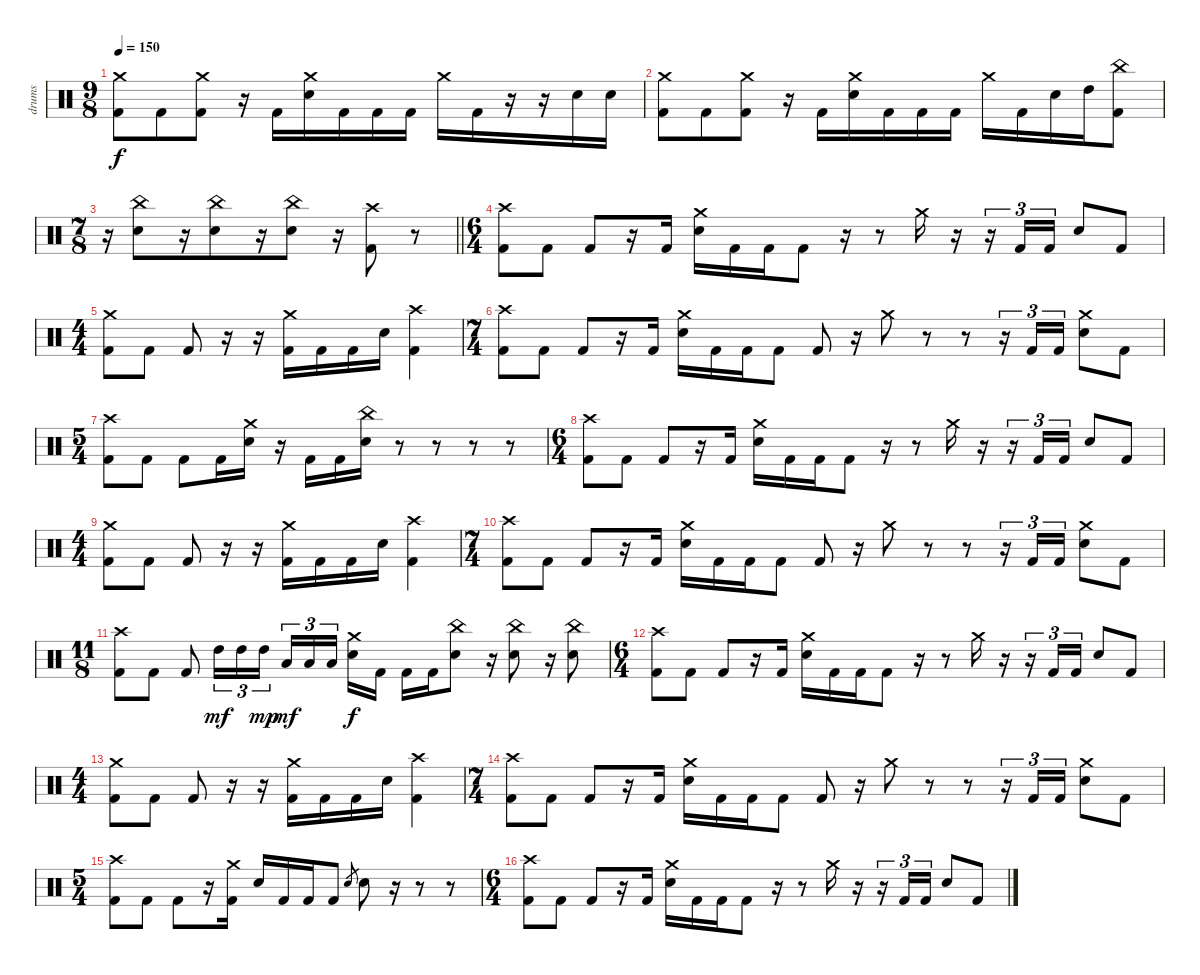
\track ("drums" "drums") {instrument percussion}
\staff {score}
\articulation defaults
\ts (9 8)
\tempo 150
\clef neutral
\ks c
("Crash medium (hit)" "Kick (hit) 2").8{dy f} "Kick (hit) 2".8 ("Crash medium (hit)" "Kick (hit) 2").8 r.16 "Kick (hit) 2".16 ("Crash medium (hit)" "Electric Snare (hit)").16 "Kick (hit) 2".16 "Kick (hit) 2".16 "Kick (hit) 2".16 "Crash medium (hit)".16 "Kick (hit) 2".16 r.16 r.16 "Electric Snare (hit)".16 "Electric Snare (hit)".16 |
("Crash medium (hit)" "Kick (hit) 2").8 "Kick (hit) 2".8 ("Crash medium (hit)" "Kick (hit) 2").8 r.16 "Kick (hit) 2".16 ("Crash medium (hit)" "Electric Snare (hit)").16 "Kick (hit) 2".16 "Kick (hit) 2".16 "Kick (hit) 2".16 "Crash medium (hit)".16 "Kick (hit) 2".16 "Electric Snare (hit)".16 "High Tom (hit)".16 ("China (hit)" "Kick (hit) 2").8 |
\ts (7 8)
\barLineRight lightlight
r.16 ("China (hit)" "Electric Snare (hit)").8 r.16 ("China (hit)" "Electric Snare (hit)").8 r.16 ("China (hit)" "Electric Snare (hit)").8 r.16 ("Crash high (hit)" "Kick (hit) 2").8 r.8 |
\ts (6 4)
\section ("" "")
("Crash high (hit)" "Kick (hit) 2").8 "Kick (hit) 2".8 "Kick (hit) 2".8 r.16 "Kick (hit) 2".16 ("Crash medium (hit)" "Electric Snare (hit)").16 "Kick (hit) 2".16 "Kick (hit) 2".16 "Kick (hit) 2".8 r.16 r.8 "Crash medium (hit)".16 r.16 r.16{tu (3 2)} "Kick (hit) 2".16{tu (3 2)} "Kick (hit) 2".16{tu (3 2)} "Electric Snare (hit)".8 "Kick (hit) 2".8 |
\ts (4 4)
("Crash medium (hit)" "Kick (hit) 2").8 "Kick (hit) 2".8 "Kick (hit) 2".8 r.16 r.16 ("Crash medium (hit)" "Kick (hit) 2").16 "Kick (hit) 2".16 "Kick (hit) 2".16 "Electric Snare (hit)".16 ("Crash high (hit)" "Kick (hit) 2").4 |
\ts (7 4)
("Crash high (hit)" "Kick (hit) 2").8 "Kick (hit) 2".8 "Kick (hit) 2".8 r.16 "Kick (hit) 2".16 ("Crash medium (hit)" "Electric Snare (hit)").16 "Kick (hit) 2".16 "Kick (hit) 2".16 "Kick (hit) 2".8 "Kick (hit) 2".8 r.16 "Crash medium (hit)".8 r.8 r.8 r.16{tu (3 2)} "Kick (hit) 2".16{tu (3 2)} "Kick (hit) 2".16{tu (3 2)} ("Crash medium (hit)" "Electric Snare (hit)").8 "Kick (hit) 2".8 |
\ts (5 4)
("Crash high (hit)" "Kick (hit) 2").8 "Kick (hit) 2".8 "Kick (hit) 2".8 "Kick (hit) 2".16 ("Crash medium (hit)" "Electric Snare (hit)").16 r.16 "Kick (hit) 2".16 "Kick (hit) 2".16 ("China (hit)" "Electric Snare (hit)").16 r.8 r.8 r.8 r.8 |
\ts (6 4)
("Crash high (hit)" "Kick (hit) 2").8 "Kick (hit) 2".8 "Kick (hit) 2".8 r.16 "Kick (hit) 2".16 ("Crash medium (hit)" "Electric Snare (hit)").16 "Kick (hit) 2".16 "Kick (hit) 2".16 "Kick (hit) 2".8 r.16 r.8 "Crash medium (hit)".16 r.16 r.16{tu (3 2)} "Kick (hit) 2".16{tu (3 2)} "Kick (hit) 2".16{tu (3 2)} "Electric Snare (hit)".8 "Kick (hit) 2".8 |
\ts (4 4)
("Crash medium (hit)" "Kick (hit) 2").8 "Kick (hit) 2".8 "Kick (hit) 2".8 r.16 r.16 ("Crash medium (hit)" "Kick (hit) 2").16 "Kick (hit) 2".16 "Kick (hit) 2".16 "Electric Snare (hit)".16 ("Crash high (hit)" "Kick (hit) 2").4 |
\ts (7 4)
("Crash high (hit)" "Kick (hit) 2").8 "Kick (hit) 2".8 "Kick (hit) 2".8 r.16 "Kick (hit) 2".16 ("Crash medium (hit)" "Electric Snare (hit)").16 "Kick (hit) 2".16 "Kick (hit) 2".16 "Kick (hit) 2".8 "Kick (hit) 2".8 r.16 "Crash medium (hit)".8 r.8 r.8 r.16{tu (3 2)} "Kick (hit) 2".16{tu (3 2)} "Kick (hit) 2".16{tu (3 2)} ("Crash medium (hit)" "Electric Snare (hit)").8 "Kick (hit) 2".8 |
\ts (11 8)
("Crash high (hit)" "Kick (hit) 2").8 "Kick (hit) 2".8 "Kick (hit) 2".8 "High Tom (hit)".16{tu (3 2) dy mf} "High Tom (hit)".16{tu (3 2)} "High Tom (hit)".16{tu (3 2) dy mp} "Low Tom (hit)".16{tu (3 2) dy mf} "Low Tom (hit)".16{tu (3 2)} "Low Tom (hit)".16{tu (3 2)} ("Crash medium (hit)" "Electric Snare (hit)").16{dy f} "Kick (hit) 2".16 "Kick (hit) 2".16 "Kick (hit) 2".16 ("China (hit)" "Electric Snare (hit)").8 r.16 ("China (hit)" "Electric Snare (hit)").8 r.16 ("China (hit)" "Electric Snare (hit)").8 |
\ts (6 4)
("Crash high (hit)" "Kick (hit) 2").8 "Kick (hit) 2".8 "Kick (hit) 2".8 r.16 "Kick (hit) 2".16 ("Crash medium (hit)" "Electric Snare (hit)").16 "Kick (hit) 2".16 "Kick (hit) 2".16 "Kick (hit) 2".8 r.16 r.8 "Crash medium (hit)".16 r.16 r.16{tu (3 2)} "Kick (hit) 2".16{tu (3 2)} "Kick (hit) 2".16{tu (3 2)} "Electric Snare (hit)".8 "Kick (hit) 2".8 |
\ts (4 4)
("Crash medium (hit)" "Kick (hit) 2").8 "Kick (hit) 2".8 "Kick (hit) 2".8 r.16 r.16 ("Crash medium (hit)" "Kick (hit) 2").16 "Kick (hit) 2".16 "Kick (hit) 2".16 "Electric Snare (hit)".16 ("Crash high (hit)" "Kick (hit) 2").4 |
\ts (7 4)
("Crash high (hit)" "Kick (hit) 2").8 "Kick (hit) 2".8 "Kick (hit) 2".8 r.16 "Kick (hit) 2".16 ("Crash medium (hit)" "Electric Snare (hit)").16 "Kick (hit) 2".16 "Kick (hit) 2".16 "Kick (hit) 2".8 "Kick (hit) 2".8 r.16 "Crash medium (hit)".8 r.8 r.8 r.16{tu (3 2)} "Kick (hit) 2".16{tu (3 2)} "Kick (hit) 2".16{tu (3 2)} ("Crash medium (hit)" "Electric Snare (hit)").8 "Kick (hit) 2".8 |
\ts (5 4)
("Crash high (hit)" "Kick (hit) 2").8 "Kick (hit) 2".8 "Kick (hit) 2".8 r.16 ("Crash medium (hit)" "Kick (hit) 2").16 "Electric Snare (hit)".16 "Kick (hit) 2".16 "Kick (hit) 2".16 "Kick (hit) 2".8 "Electric Snare (hit)".8{gr} "Electric Snare (hit)".8 r.16 r.8 r.8 |
\ts (6 4)
("Crash high (hit)" "Kick (hit) 2").8 "Kick (hit) 2".8 "Kick (hit) 2".8 r.16 "Kick (hit) 2".16 ("Crash medium (hit)" "Electric Snare (hit)").16 "Kick (hit) 2".16 "Kick (hit) 2".16 "Kick (hit) 2".8 r.16 r.8 "Crash medium (hit)".16 r.16 r.16{tu (3 2)} "Kick (hit) 2".16{tu (3 2)} "Kick (hit) 2".16{tu (3 2)} "Electric Snare (hit)".8 "Kick (hit) 2".8
